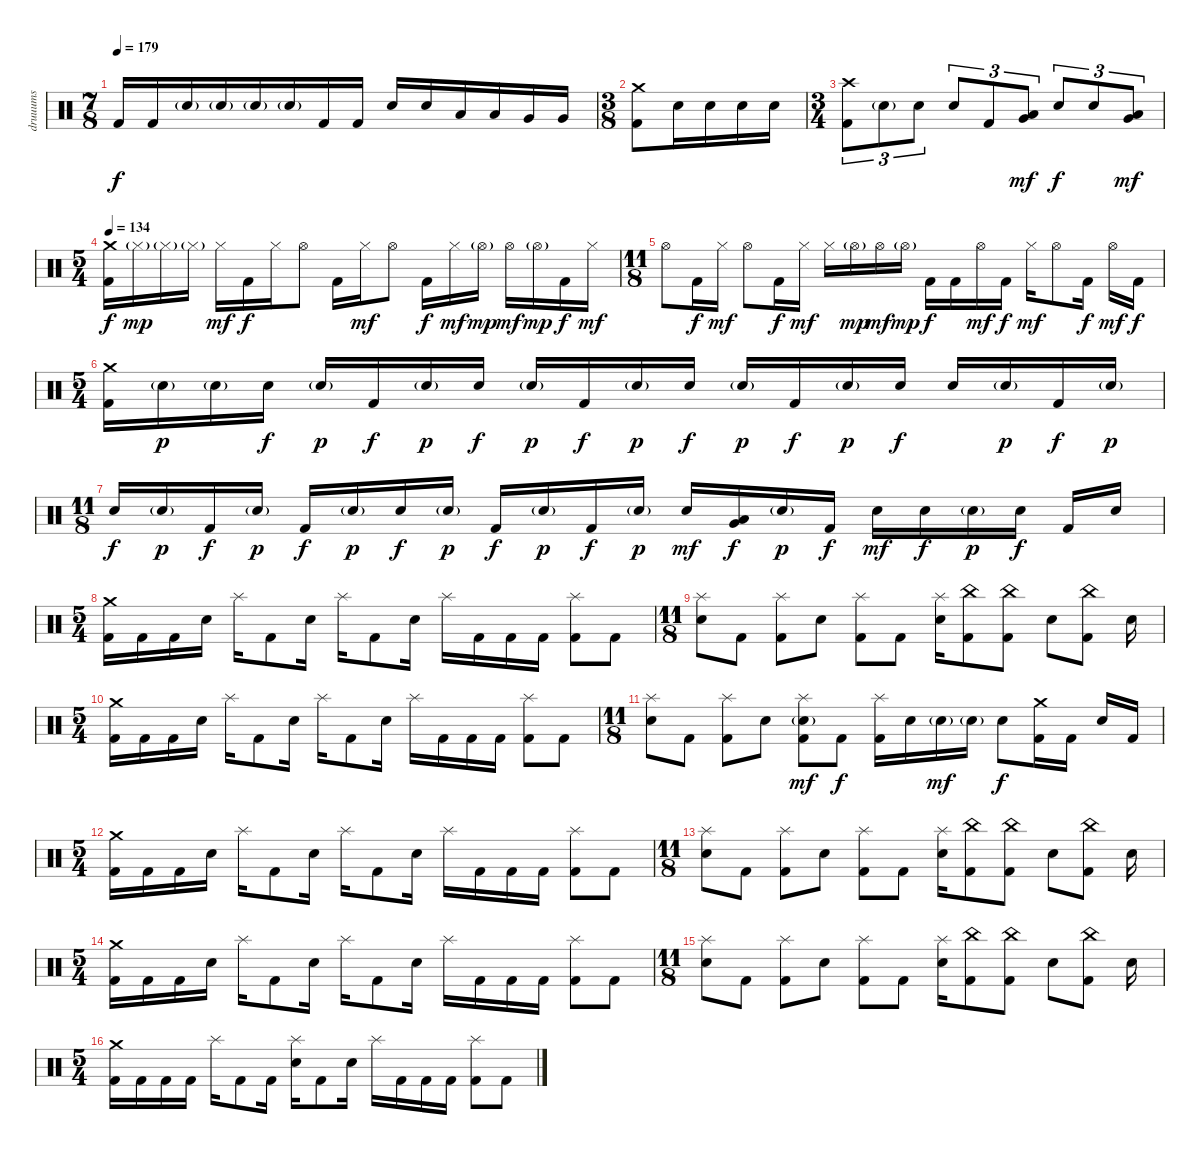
\track ("druuums" "druuums") {instrument percussion}
\staff {score}
\articulation defaults
\ts (7 8)
\tempo 179
\clef neutral
\ks c "Kick (hit) 2".16{dy f} "Kick (hit) 2".16 "Electric Snare (hit)"{g}.16 "Electric Snare (hit)"{g}.16 "Electric Snare (hit)"{g}.16 "Electric Snare (hit)"{g}.16 "Kick (hit) 2".16 "Kick (hit) 2".16 "Electric Snare (hit)".16 "Electric Snare (hit)".16 "Low Tom (hit)".16 "Low Tom (hit)".16 "Very Low Tom (hit)".16 "Very Low Tom (hit)".16
|
\ts (3 8)
("Crash medium (hit)" "Kick (hit) 2").8 "Electric Snare (hit)".16 "Electric Snare (hit)".16 "Electric Snare (hit)".16 "Electric Snare (hit)".16 |
\ts (3 4)
("Crash high (hit)" "Kick (hit) 2").8{tu (3 2)} "Electric Snare (hit)"{g}.8{tu (3 2)} "Electric Snare (hit)".8{tu (3 2)} "Electric Snare (hit)".8{tu (3 2)} "Kick (hit) 2".8{tu (3 2)} ("Low Floor Tom (hit)" "Very Low Tom (hit)").8{tu (3 2) dy mf} "Electric Snare (hit)".8{tu (3 2) dy f} "Electric Snare (hit)".8{tu (3 2)} ("Very Low Tom (hit)" "Low Tom (hit)").8{tu (3 2) dy mf} |
\ts (5 4)
\tempo 134
("Crash medium (hit)" "Kick (hit) 2").16{dy f} "Hi-Hat (closed)"{g}.16{dy mp} "Hi-Hat (closed)"{g}.16 "Hi-Hat (closed)"{g}.16 "Hi-Hat (closed)".16{dy mf} "Kick (hit) 2".16{dy f} "Hi-Hat (closed)".16 "Hi-Hat (open)".8 "Kick (hit) 2".16 "Hi-Hat (closed)".16{dy mf} "Hi-Hat (open)".8 "Kick (hit) 2".16{dy f} "Hi-Hat (closed)".16{dy mf} "Hi-Hat (open)"{g}.16{dy mp} "Hi-Hat (open)".16{dy mf} "Hi-Hat (open)"{g}.16{dy mp} "Kick (hit) 2".16{dy f} "Hi-Hat (closed)".16{dy mf} |
\ts (11 8)
"Hi-Hat (open)".8 "Kick (hit) 2".16{dy f} "Hi-Hat (closed)".16{dy mf} "Hi-Hat (open)".8 "Kick (hit) 2".16{dy f} "Hi-Hat (closed)".16{dy mf} "Hi-Hat (closed)".16 "Hi-Hat (open)"{g}.16{dy mp} "Hi-Hat (open)".16{dy mf} "Hi-Hat (open)"{g}.16{dy mp} "Kick (hit) 2".16{dy f} "Kick (hit) 2".16 "Hi-Hat (open)".16{dy mf} "Kick (hit) 2".16{dy f} "Hi-Hat (closed)".16{dy mf} "Hi-Hat (open)".8 "Kick (hit) 2".16{dy f} "Hi-Hat (open)".16{dy mf} "Kick (hit) 2".16{dy f} |
\ts (5 4)
("Crash medium (hit)" "Kick (hit) 2").16 "Electric Snare (hit)"{g}.16{dy p} "Electric Snare (hit)"{g}.16 "Electric Snare (hit)".16{dy f} "Electric Snare (hit)"{g}.16{dy p} "Kick (hit) 2".16{dy f} "Electric Snare (hit)"{g}.16{dy p} "Electric Snare (hit)".16{dy f} "Electric Snare (hit)"{g}.16{dy p} "Kick (hit) 2".16{dy f} "Electric Snare (hit)"{g}.16{dy p} "Electric Snare (hit)".16{dy f} "Electric Snare (hit)"{g}.16{dy p} "Kick (hit) 2".16{dy f} "Electric Snare (hit)"{g}.16{dy p} "Electric Snare (hit)".16{dy f} "Electric Snare (hit)".16 "Electric Snare (hit)"{g}.16{dy p} "Kick (hit) 2".16{dy f} "Electric Snare (hit)"{g}.16{dy p} |
\ts (11 8)
"Electric Snare (hit)".16{dy f} "Electric Snare (hit)"{g}.16{dy p} "Kick (hit) 2".16{dy f} "Electric Snare (hit)"{g}.16{dy p} "Kick (hit) 2".16{dy f} "Electric Snare (hit)"{g}.16{dy p} "Electric Snare (hit)".16{dy f} "Electric Snare (hit)"{g}.16{dy p} "Kick (hit) 2".16{dy f} "Electric Snare (hit)"{g}.16{dy p} "Kick (hit) 2".16{dy f} "Electric Snare (hit)"{g}.16{dy p} "Electric Snare (hit)".16{dy mf} ("Very Low Tom (hit)" "Low Floor Tom (hit)").16{dy f} "Electric Snare (hit)"{g}.16{dy p} "Kick (hit) 2".16{dy f} "Electric Snare (hit)".16{dy mf} "Electric Snare (hit)".16{dy f} "Electric Snare (hit)"{g}.16{dy p} "Electric Snare (hit)".16{dy f} "Kick (hit) 2".16 "Electric Snare (hit)".16 |
\ts (5 4)
("Crash medium (hit)" "Kick (hit) 2").16 "Kick (hit) 2".16 "Kick (hit) 2".16 "Electric Snare (hit)".16 "Splash (hit)".16 "Kick (hit) 2".8 "Electric Snare (hit)".16 "Splash (hit)".16 "Kick (hit) 2".8 "Electric Snare (hit)".16 "Splash (hit)".16 "Kick (hit) 2".16 "Kick (hit) 2".16 "Kick (hit) 2".16 ("Splash (hit)" "Kick (hit) 2").8 "Kick (hit) 2".8 |
\ts (11 8)
("Splash (hit)" "Electric Snare (hit)").8 "Kick (hit) 2".8 ("Splash (hit)" "Kick (hit) 2").8 "Electric Snare (hit)".8 ("Splash (hit)" "Kick (hit) 2").8 "Kick (hit) 2".8 ("Splash (hit)" "Electric Snare (hit)").16 ("China (hit)" "Kick (hit) 2").8 ("China (hit)" "Kick (hit) 2").8 "Electric Snare (hit)".8 ("China (hit)" "Kick (hit) 2").8 "Electric Snare (hit)".16 |
\ts (5 4)
("Crash medium (hit)" "Kick (hit) 2").16 "Kick (hit) 2".16 "Kick (hit) 2".16 "Electric Snare (hit)".16 "Splash (hit)".16 "Kick (hit) 2".8 "Electric Snare (hit)".16 "Splash (hit)".16 "Kick (hit) 2".8 "Electric Snare (hit)".16 "Splash (hit)".16 "Kick (hit) 2".16 "Kick (hit) 2".16 "Kick (hit) 2".16 ("Splash (hit)" "Kick (hit) 2").8 "Kick (hit) 2".8 |
\ts (11 8)
("Splash (hit)" "Electric Snare (hit)").8 "Kick (hit) 2".8 ("Splash (hit)" "Kick (hit) 2").8 "Electric Snare (hit)".8 ("Splash (hit)" "Electric Snare (hit)"{g} "Kick (hit) 2").8{dy mf} "Kick (hit) 2".8{dy f} ("Splash (hit)" "Kick (hit) 2").16 "Electric Snare (hit)".16 "Electric Snare (hit)"{g}.16{dy mf} "Electric Snare (hit)"{g}.16 "Electric Snare (hit)".8{dy f} ("Crash medium (hit)" "Kick (hit) 2").16 "Kick (hit) 2".16 "Electric Snare (hit)".16 "Kick (hit) 2".16 |
\ts (5 4)
("Crash medium (hit)" "Kick (hit) 2").16 "Kick (hit) 2".16 "Kick (hit) 2".16 "Electric Snare (hit)".16 "Splash (hit)".16 "Kick (hit) 2".8 "Electric Snare (hit)".16 "Splash (hit)".16 "Kick (hit) 2".8 "Electric Snare (hit)".16 "Splash (hit)".16 "Kick (hit) 2".16 "Kick (hit) 2".16 "Kick (hit) 2".16 ("Splash (hit)" "Kick (hit) 2").8 "Kick (hit) 2".8 |
\ts (11 8)
("Splash (hit)" "Electric Snare (hit)").8 "Kick (hit) 2".8 ("Splash (hit)" "Kick (hit) 2").8 "Electric Snare (hit)".8 ("Splash (hit)" "Kick (hit) 2").8 "Kick (hit) 2".8 ("Splash (hit)" "Electric Snare (hit)").16 ("China (hit)" "Kick (hit) 2").8 ("China (hit)" "Kick (hit) 2").8 "Electric Snare (hit)".8 ("China (hit)" "Kick (hit) 2").8 "Electric Snare (hit)".16 |
\ts (5 4)
("Crash medium (hit)" "Kick (hit) 2").16 "Kick (hit) 2".16 "Kick (hit) 2".16 "Electric Snare (hit)".16 "Splash (hit)".16 "Kick (hit) 2".8 "Electric Snare (hit)".16 "Splash (hit)".16 "Kick (hit) 2".8 "Electric Snare (hit)".16 "Splash (hit)".16 "Kick (hit) 2".16 "Kick (hit) 2".16 "Kick (hit) 2".16 ("Splash (hit)" "Kick (hit) 2").8 "Kick (hit) 2".8 |
\ts (11 8)
("Splash (hit)" "Electric Snare (hit)").8 "Kick (hit) 2".8 ("Splash (hit)" "Kick (hit) 2").8 "Electric Snare (hit)".8 ("Splash (hit)" "Kick (hit) 2").8 "Kick (hit) 2".8 ("Splash (hit)" "Electric Snare (hit)").16 ("China (hit)" "Kick (hit) 2").8 ("China (hit)" "Kick (hit) 2").8 "Electric Snare (hit)".8 ("China (hit)" "Kick (hit) 2").8 "Electric Snare (hit)".16 |
\ts (5 4)
("Crash medium (hit)" "Kick (hit) 2").16 "Kick (hit) 2".16 "Kick (hit) 2".16 "Kick (hit) 2".16 "Splash (hit)".16 "Kick (hit) 2".8 "Kick (hit) 2".16 ("Splash (hit)" "Electric Snare (hit)").16 "Kick (hit) 2".8 "Electric Snare (hit)".16 "Splash (hit)".16 "Kick (hit) 2".16 "Kick (hit) 2".16 "Kick (hit) 2".16 ("Splash (hit)" "Kick (hit) 2").8 "Kick (hit) 2".8
